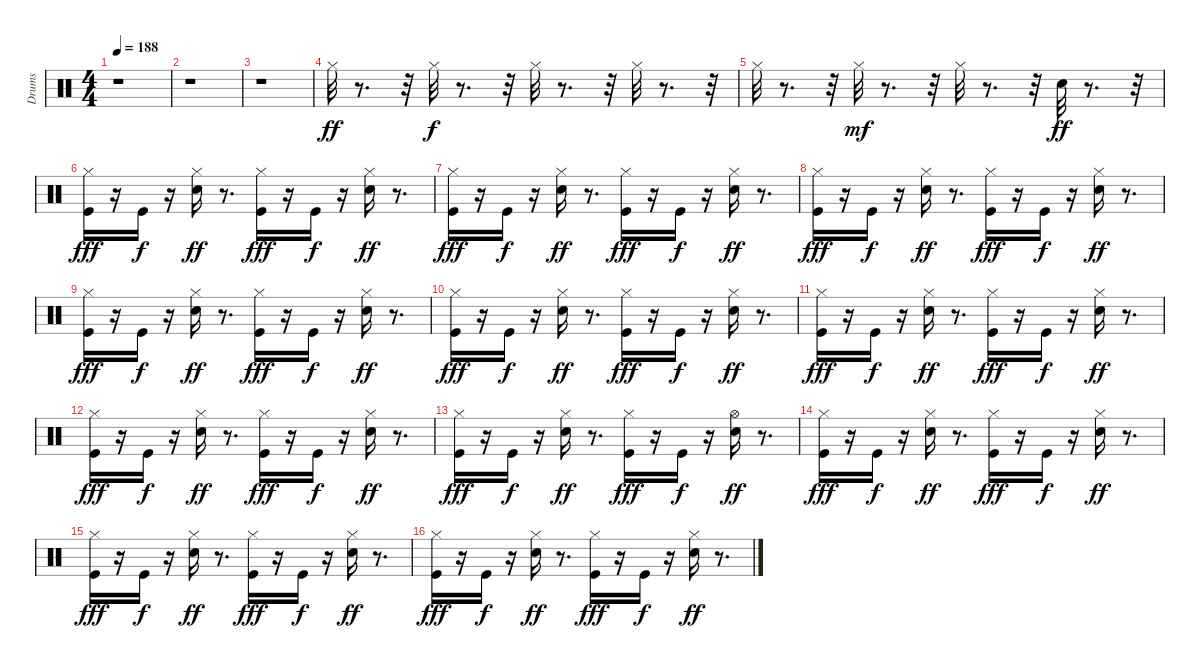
\track ("Drums" "Drums") {instrument percussion}
\staff {score}
\articulation defaults
\ts (4 4)
\tempo 188
\clef neutral
\ks c
r.1{dy ff} |
r.1 |
r.1 |
"Hi-Hat (closed)".32 r.8{d} r.32 "Hi-Hat (closed)".32{dy f} r.8{d} r.32 "Hi-Hat (closed)".32 r.8{d} r.32 "Hi-Hat (closed)".32 r.8{d} r.32 |
"Hi-Hat (closed)".32 r.8{d} r.32 "Hi-Hat (closed)".32{dy mf} r.8{d} r.32 "Hi-Hat (closed)".32 r.8{d} r.32 "Electric Snare (hit)".32{dy ff} r.8{d} r.32 |
("Hi-Hat (closed)" "Kick (hit)").16{dy fff} r.16 "Kick (hit)".16{dy f} r.16 ("Electric Snare (hit)" "Hi-Hat (closed)").16{dy ff} r.8{d} ("Hi-Hat (closed)" "Kick (hit)").16{dy fff} r.16 "Kick (hit)".16{dy f} r.16 ("Electric Snare (hit)" "Hi-Hat (closed)").16{dy ff} r.8{d} |
("Hi-Hat (closed)" "Kick (hit)").16{dy fff} r.16 "Kick (hit)".16{dy f} r.16 ("Electric Snare (hit)" "Hi-Hat (closed)").16{dy ff} r.8{d} ("Hi-Hat (closed)" "Kick (hit)").16{dy fff} r.16 "Kick (hit)".16{dy f} r.16 ("Electric Snare (hit)" "Hi-Hat (closed)").16{dy ff} r.8{d} |
("Hi-Hat (closed)" "Kick (hit)").16{dy fff} r.16 "Kick (hit)".16{dy f} r.16 ("Electric Snare (hit)" "Hi-Hat (closed)").16{dy ff} r.8{d} ("Hi-Hat (closed)" "Kick (hit)").16{dy fff} r.16 "Kick (hit)".16{dy f} r.16 ("Electric Snare (hit)" "Hi-Hat (closed)").16{dy ff} r.8{d} |
("Hi-Hat (closed)" "Kick (hit)").16{dy fff} r.16 "Kick (hit)".16{dy f} r.16 ("Electric Snare (hit)" "Hi-Hat (closed)").16{dy ff} r.8{d} ("Hi-Hat (closed)" "Kick (hit)").16{dy fff} r.16 "Kick (hit)".16{dy f} r.16 ("Electric Snare (hit)" "Hi-Hat (closed)").16{dy ff} r.8{d} |
("Hi-Hat (closed)" "Kick (hit)").16{dy fff} r.16 "Kick (hit)".16{dy f} r.16 ("Electric Snare (hit)" "Hi-Hat (closed)").16{dy ff} r.8{d} ("Hi-Hat (closed)" "Kick (hit)").16{dy fff} r.16 "Kick (hit)".16{dy f} r.16 ("Electric Snare (hit)" "Hi-Hat (closed)").16{dy ff} r.8{d} |
("Hi-Hat (closed)" "Kick (hit)").16{dy fff} r.16 "Kick (hit)".16{dy f} r.16 ("Electric Snare (hit)" "Hi-Hat (closed)").16{dy ff} r.8{d} ("Hi-Hat (closed)" "Kick (hit)").16{dy fff} r.16 "Kick (hit)".16{dy f} r.16 ("Electric Snare (hit)" "Hi-Hat (closed)").16{dy ff} r.8{d} |
("Hi-Hat (closed)" "Kick (hit)").16{dy fff} r.16 "Kick (hit)".16{dy f} r.16 ("Electric Snare (hit)" "Hi-Hat (closed)").16{dy ff} r.8{d} ("Hi-Hat (closed)" "Kick (hit)").16{dy fff} r.16 "Kick (hit)".16{dy f} r.16 ("Electric Snare (hit)" "Hi-Hat (closed)").16{dy ff} r.8{d} |
("Hi-Hat (closed)" "Kick (hit)").16{dy fff} r.16 "Kick (hit)".16{dy f} r.16 ("Electric Snare (hit)" "Hi-Hat (closed)").16{dy ff} r.8{d} ("Hi-Hat (closed)" "Kick (hit)").16{dy fff} r.16 "Kick (hit)".16{dy f} r.16 ("Electric Snare (hit)" "Hi-Hat (open)").16{dy ff} r.8{d} |
("Hi-Hat (closed)" "Kick (hit)").16{dy fff} r.16 "Kick (hit)".16{dy f} r.16 ("Electric Snare (hit)" "Hi-Hat (closed)").16{dy ff} r.8{d} ("Hi-Hat (closed)" "Kick (hit)").16{dy fff} r.16 "Kick (hit)".16{dy f} r.16 ("Electric Snare (hit)" "Hi-Hat (closed)").16{dy ff} r.8{d} |
("Hi-Hat (closed)" "Kick (hit)").16{dy fff} r.16 "Kick (hit)".16{dy f} r.16 ("Electric Snare (hit)" "Hi-Hat (closed)").16{dy ff} r.8{d} ("Hi-Hat (closed)" "Kick (hit)").16{dy fff} r.16 "Kick (hit)".16{dy f} r.16 ("Electric Snare (hit)" "Hi-Hat (closed)").16{dy ff} r.8{d} |
("Hi-Hat (closed)" "Kick (hit)").16{dy fff} r.16 "Kick (hit)".16{dy f} r.16 ("Electric Snare (hit)" "Hi-Hat (closed)").16{dy ff} r.8{d} ("Hi-Hat (closed)" "Kick (hit)").16{dy fff} r.16 "Kick (hit)".16{dy f} r.16 ("Electric Snare (hit)" "Hi-Hat (closed)").16{dy ff} r.8{d}
